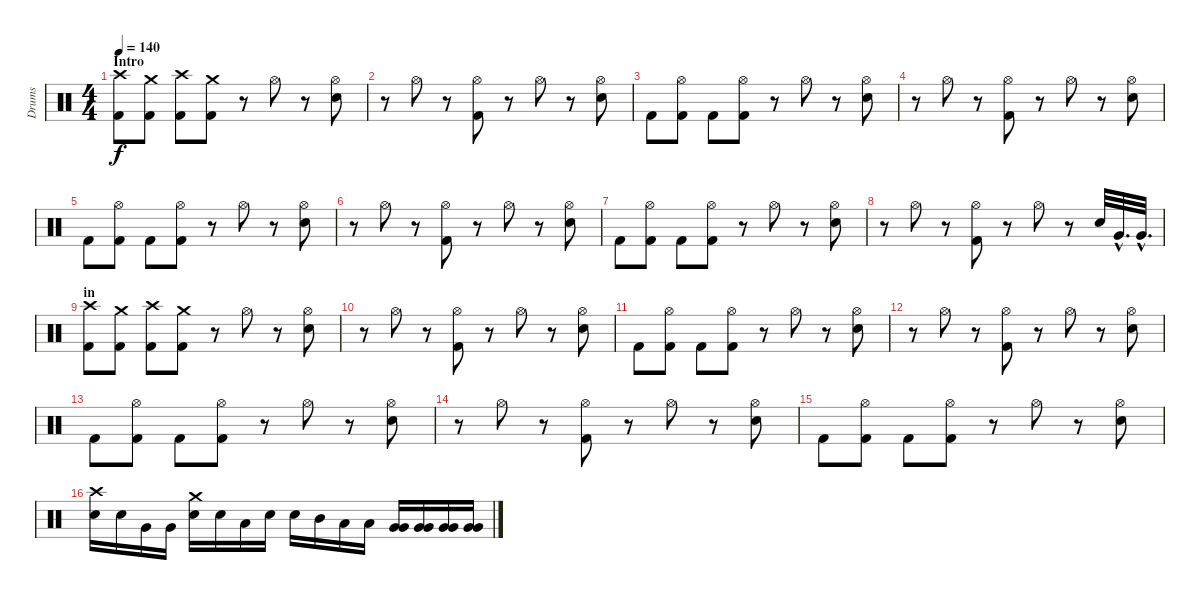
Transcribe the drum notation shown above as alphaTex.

\track ("Drums" "Drums") {instrument percussion}
\staff {score}
\articulation defaults
\ts (4 4)
\section ("" "Intro")
\tempo 140
\clef neutral
\ks c
("Crash high (hit)" "Kick (hit) 2").8{dy f} ("Crash medium (hit)" "Kick (hit) 2").8 ("Crash high (hit)" "Kick (hit) 2").8 ("Crash medium (hit)" "Kick (hit) 2").8 r.8 "Hi-Hat (open)".8 r.8 ("Hi-Hat (open)" "Snare (hit) 2").8 |
r.8 "Hi-Hat (open)".8 r.8 ("Hi-Hat (open)" "Kick (hit) 2").8 r.8 "Hi-Hat (open)".8 r.8 ("Hi-Hat (open)" "Snare (hit) 2").8 |
"Kick (hit) 2".8 ("Hi-Hat (open)" "Kick (hit) 2").8 "Kick (hit) 2".8 ("Hi-Hat (open)" "Kick (hit) 2").8 r.8 "Hi-Hat (open)".8 r.8 ("Hi-Hat (open)" "Snare (hit) 2").8 |
r.8 "Hi-Hat (open)".8 r.8 ("Hi-Hat (open)" "Kick (hit) 2").8 r.8 "Hi-Hat (open)".8 r.8 ("Hi-Hat (open)" "Snare (hit) 2").8 |
"Kick (hit) 2".8 ("Hi-Hat (open)" "Kick (hit) 2").8 "Kick (hit) 2".8 ("Hi-Hat (open)" "Kick (hit) 2").8 r.8 "Hi-Hat (open)".8 r.8 ("Hi-Hat (open)" "Snare (hit) 2").8 |
r.8 "Hi-Hat (open)".8 r.8 ("Hi-Hat (open)" "Kick (hit) 2").8 r.8 "Hi-Hat (open)".8 r.8 ("Hi-Hat (open)" "Snare (hit) 2").8 |
"Kick (hit) 2".8 ("Hi-Hat (open)" "Kick (hit) 2").8 "Kick (hit) 2".8 ("Hi-Hat (open)" "Kick (hit) 2").8 r.8 "Hi-Hat (open)".8 r.8 ("Hi-Hat (open)" "Snare (hit) 2").8 |
r.8 "Hi-Hat (open)".8 r.8 ("Hi-Hat (open)" "Kick (hit) 2").8 r.8 "Hi-Hat (open)".8 r.8 "Snare (hit) 2".32 "Very Low Tom (hit)"{hac}.32{d} "Very Low Tom (hit)"{hac}.32{d} |
\section ("" "in")
("Crash high (hit)" "Kick (hit) 2").8 ("Crash medium (hit)" "Kick (hit) 2").8 ("Crash high (hit)" "Kick (hit) 2").8 ("Crash medium (hit)" "Kick (hit) 2").8 r.8 "Hi-Hat (open)".8 r.8 ("Hi-Hat (open)" "Snare (hit) 2").8 |
r.8 "Hi-Hat (open)".8 r.8 ("Hi-Hat (open)" "Kick (hit) 2").8 r.8 "Hi-Hat (open)".8 r.8 ("Hi-Hat (open)" "Snare (hit) 2").8 |
"Kick (hit) 2".8 ("Hi-Hat (open)" "Kick (hit) 2").8 "Kick (hit) 2".8 ("Hi-Hat (open)" "Kick (hit) 2").8 r.8 "Hi-Hat (open)".8 r.8 ("Hi-Hat (open)" "Snare (hit) 2").8 |
r.8 "Hi-Hat (open)".8 r.8 ("Hi-Hat (open)" "Kick (hit) 2").8 r.8 "Hi-Hat (open)".8 r.8 ("Hi-Hat (open)" "Snare (hit) 2").8 |
"Kick (hit) 2".8 ("Hi-Hat (open)" "Kick (hit) 2").8 "Kick (hit) 2".8 ("Hi-Hat (open)" "Kick (hit) 2").8 r.8 "Hi-Hat (open)".8 r.8 ("Hi-Hat (open)" "Snare (hit) 2").8 |
r.8 "Hi-Hat (open)".8 r.8 ("Hi-Hat (open)" "Kick (hit) 2").8 r.8 "Hi-Hat (open)".8 r.8 ("Hi-Hat (open)" "Snare (hit) 2").8 |
"Kick (hit) 2".8 ("Hi-Hat (open)" "Kick (hit) 2").8 "Kick (hit) 2".8 ("Hi-Hat (open)" "Kick (hit) 2").8 r.8 "Hi-Hat (open)".8 r.8 ("Hi-Hat (open)" "Snare (hit) 2").8 |
("Crash high (hit)" "Snare (hit) 2").16 "Snare (hit) 2".16 "Very Low Tom (hit)".16 "Very Low Tom (hit)".16 ("Crash medium (hit)" "Snare (hit) 2").16 "Snare (hit) 2".16 "Low Tom (hit)".16 "Snare (hit) 2".16 "Snare (hit) 2".16 "Mid Tom (hit)".16 "Low Tom (hit)".16 "Low Tom (hit)".16 ("Very Low Tom (hit)" "Very Low Tom (hit)").16 ("Very Low Tom (hit)" "Very Low Tom (hit)").16 ("Very Low Tom (hit)" "Very Low Tom (hit)").16 ("Very Low Tom (hit)" "Very Low Tom (hit)").16
